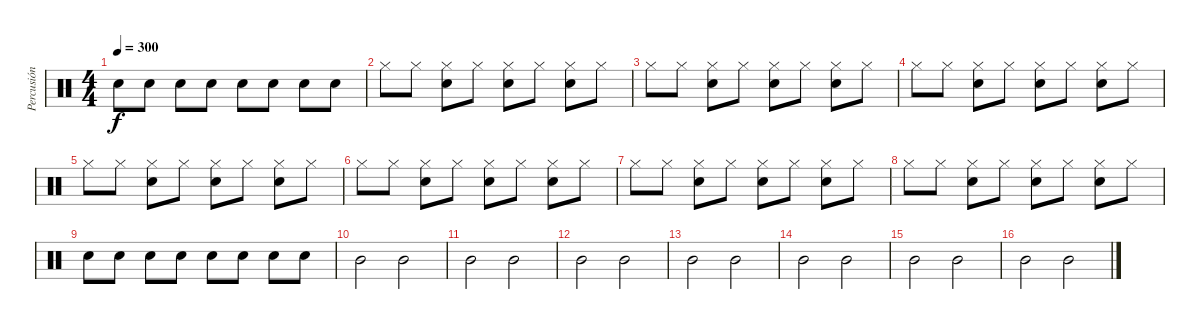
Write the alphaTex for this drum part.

\track ("Percusión" "Percusión") {instrument percussion}
\staff {score}
\articulation defaults
\ts (4 4)
\tempo 300
\clef neutral
\ks c "Snare (hit) 2".8{dy f} "Snare (hit) 2".8 "Snare (hit) 2".8 "Snare (hit) 2".8 "Snare (hit) 2".8 "Snare (hit) 2".8 "Snare (hit) 2".8 "Snare (hit) 2".8
|
"Hi-Hat (closed)".8 "Hi-Hat (closed)".8 ("Hi-Hat (closed)" "Snare (hit) 2").8 "Hi-Hat (closed)".8 ("Hi-Hat (closed)" "Snare (hit) 2").8 "Hi-Hat (closed)".8 ("Hi-Hat (closed)" "Snare (hit) 2").8 "Hi-Hat (closed)".8 |
"Hi-Hat (closed)".8 "Hi-Hat (closed)".8 ("Hi-Hat (closed)" "Snare (hit) 2").8 "Hi-Hat (closed)".8 ("Hi-Hat (closed)" "Snare (hit) 2").8 "Hi-Hat (closed)".8 ("Hi-Hat (closed)" "Snare (hit) 2").8 "Hi-Hat (closed)".8 |
"Hi-Hat (closed)".8 "Hi-Hat (closed)".8 ("Hi-Hat (closed)" "Snare (hit) 2").8 "Hi-Hat (closed)".8 ("Hi-Hat (closed)" "Snare (hit) 2").8 "Hi-Hat (closed)".8 ("Hi-Hat (closed)" "Snare (hit) 2").8 "Hi-Hat (closed)".8 |
"Hi-Hat (closed)".8 "Hi-Hat (closed)".8 ("Hi-Hat (closed)" "Snare (hit) 2").8 "Hi-Hat (closed)".8 ("Hi-Hat (closed)" "Snare (hit) 2").8 "Hi-Hat (closed)".8 ("Hi-Hat (closed)" "Snare (hit) 2").8 "Hi-Hat (closed)".8 |
"Hi-Hat (closed)".8 "Hi-Hat (closed)".8 ("Hi-Hat (closed)" "Snare (hit) 2").8 "Hi-Hat (closed)".8 ("Hi-Hat (closed)" "Snare (hit) 2").8 "Hi-Hat (closed)".8 ("Hi-Hat (closed)" "Snare (hit) 2").8 "Hi-Hat (closed)".8 |
"Hi-Hat (closed)".8 "Hi-Hat (closed)".8 ("Hi-Hat (closed)" "Snare (hit) 2").8 "Hi-Hat (closed)".8 ("Hi-Hat (closed)" "Snare (hit) 2").8 "Hi-Hat (closed)".8 ("Hi-Hat (closed)" "Snare (hit) 2").8 "Hi-Hat (closed)".8 |
"Hi-Hat (closed)".8 "Hi-Hat (closed)".8 ("Hi-Hat (closed)" "Snare (hit) 2").8 "Hi-Hat (closed)".8 ("Hi-Hat (closed)" "Snare (hit) 2").8 "Hi-Hat (closed)".8 ("Hi-Hat (closed)" "Snare (hit) 2").8 "Hi-Hat (closed)".8 |
"Snare (hit) 2".8 "Snare (hit) 2".8 "Snare (hit) 2".8 "Snare (hit) 2".8 "Snare (hit) 2".8 "Snare (hit) 2".8 "Snare (hit) 2".8 "Snare (hit) 2".8 |
"Mid Tom (hit)".2 "Mid Tom (hit)".2 |
"Mid Tom (hit)".2 "Mid Tom (hit)".2 |
"Mid Tom (hit)".2 "Mid Tom (hit)".2 |
"Mid Tom (hit)".2 "Mid Tom (hit)".2 |
"Mid Tom (hit)".2 "Mid Tom (hit)".2 |
"Mid Tom (hit)".2 "Mid Tom (hit)".2 |
"Mid Tom (hit)".2 "Mid Tom (hit)".2
